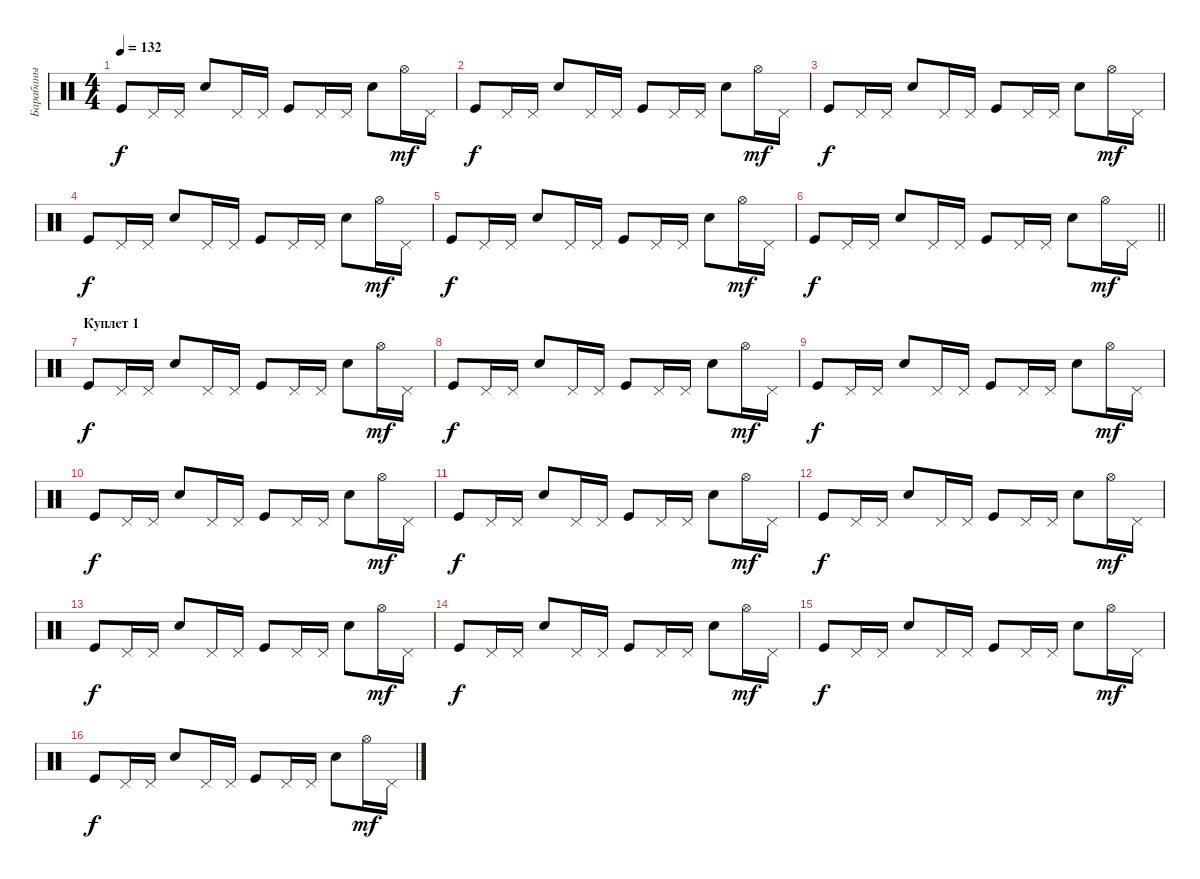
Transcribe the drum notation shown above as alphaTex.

\track ("Барабаны" "Барабаны") {instrument percussion}
\staff {score}
\articulation defaults
\ts (4 4)
\tempo 132
\clef neutral
\ks c "Kick (hit)".8{dy f} "Pedal Hi-Hat (hit)".16 "Pedal Hi-Hat (hit)".16 "Snare (hit) 2".8 "Pedal Hi-Hat (hit)".16 "Pedal Hi-Hat (hit)".16 "Kick (hit)".8 "Pedal Hi-Hat (hit)".16 "Pedal Hi-Hat (hit)".16 "Snare (hit) 2".8 "Hi-Hat (open)".16{dy mf} "Pedal Hi-Hat (hit)".16
|
"Kick (hit)".8{dy f} "Pedal Hi-Hat (hit)".16 "Pedal Hi-Hat (hit)".16 "Snare (hit) 2".8 "Pedal Hi-Hat (hit)".16 "Pedal Hi-Hat (hit)".16 "Kick (hit)".8 "Pedal Hi-Hat (hit)".16 "Pedal Hi-Hat (hit)".16 "Snare (hit) 2".8 "Hi-Hat (open)".16{dy mf} "Pedal Hi-Hat (hit)".16 |
"Kick (hit)".8{dy f} "Pedal Hi-Hat (hit)".16 "Pedal Hi-Hat (hit)".16 "Snare (hit) 2".8 "Pedal Hi-Hat (hit)".16 "Pedal Hi-Hat (hit)".16 "Kick (hit)".8 "Pedal Hi-Hat (hit)".16 "Pedal Hi-Hat (hit)".16 "Snare (hit) 2".8 "Hi-Hat (open)".16{dy mf} "Pedal Hi-Hat (hit)".16 |
"Kick (hit)".8{dy f} "Pedal Hi-Hat (hit)".16 "Pedal Hi-Hat (hit)".16 "Snare (hit) 2".8 "Pedal Hi-Hat (hit)".16 "Pedal Hi-Hat (hit)".16 "Kick (hit)".8 "Pedal Hi-Hat (hit)".16 "Pedal Hi-Hat (hit)".16 "Snare (hit) 2".8 "Hi-Hat (open)".16{dy mf} "Pedal Hi-Hat (hit)".16 |
"Kick (hit)".8{dy f} "Pedal Hi-Hat (hit)".16 "Pedal Hi-Hat (hit)".16 "Snare (hit) 2".8 "Pedal Hi-Hat (hit)".16 "Pedal Hi-Hat (hit)".16 "Kick (hit)".8 "Pedal Hi-Hat (hit)".16 "Pedal Hi-Hat (hit)".16 "Snare (hit) 2".8 "Hi-Hat (open)".16{dy mf} "Pedal Hi-Hat (hit)".16 |
\barLineRight lightlight "Kick (hit)".8{dy f} "Pedal Hi-Hat (hit)".16 "Pedal Hi-Hat (hit)".16 "Snare (hit) 2".8 "Pedal Hi-Hat (hit)".16 "Pedal Hi-Hat (hit)".16 "Kick (hit)".8 "Pedal Hi-Hat (hit)".16 "Pedal Hi-Hat (hit)".16 "Snare (hit) 2".8 "Hi-Hat (open)".16{dy mf} "Pedal Hi-Hat (hit)".16
|
\section ("" "Куплет 1")
"Kick (hit)".8{dy f} "Pedal Hi-Hat (hit)".16 "Pedal Hi-Hat (hit)".16 "Snare (hit) 2".8 "Pedal Hi-Hat (hit)".16 "Pedal Hi-Hat (hit)".16 "Kick (hit)".8 "Pedal Hi-Hat (hit)".16 "Pedal Hi-Hat (hit)".16 "Snare (hit) 2".8 "Hi-Hat (open)".16{dy mf} "Pedal Hi-Hat (hit)".16 |
"Kick (hit)".8{dy f} "Pedal Hi-Hat (hit)".16 "Pedal Hi-Hat (hit)".16 "Snare (hit) 2".8 "Pedal Hi-Hat (hit)".16 "Pedal Hi-Hat (hit)".16 "Kick (hit)".8 "Pedal Hi-Hat (hit)".16 "Pedal Hi-Hat (hit)".16 "Snare (hit) 2".8 "Hi-Hat (open)".16{dy mf} "Pedal Hi-Hat (hit)".16 |
"Kick (hit)".8{dy f} "Pedal Hi-Hat (hit)".16 "Pedal Hi-Hat (hit)".16 "Snare (hit) 2".8 "Pedal Hi-Hat (hit)".16 "Pedal Hi-Hat (hit)".16 "Kick (hit)".8 "Pedal Hi-Hat (hit)".16 "Pedal Hi-Hat (hit)".16 "Snare (hit) 2".8 "Hi-Hat (open)".16{dy mf} "Pedal Hi-Hat (hit)".16 |
"Kick (hit)".8{dy f} "Pedal Hi-Hat (hit)".16 "Pedal Hi-Hat (hit)".16 "Snare (hit) 2".8 "Pedal Hi-Hat (hit)".16 "Pedal Hi-Hat (hit)".16 "Kick (hit)".8 "Pedal Hi-Hat (hit)".16 "Pedal Hi-Hat (hit)".16 "Snare (hit) 2".8 "Hi-Hat (open)".16{dy mf} "Pedal Hi-Hat (hit)".16 |
"Kick (hit)".8{dy f} "Pedal Hi-Hat (hit)".16 "Pedal Hi-Hat (hit)".16 "Snare (hit) 2".8 "Pedal Hi-Hat (hit)".16 "Pedal Hi-Hat (hit)".16 "Kick (hit)".8 "Pedal Hi-Hat (hit)".16 "Pedal Hi-Hat (hit)".16 "Snare (hit) 2".8 "Hi-Hat (open)".16{dy mf} "Pedal Hi-Hat (hit)".16 |
"Kick (hit)".8{dy f} "Pedal Hi-Hat (hit)".16 "Pedal Hi-Hat (hit)".16 "Snare (hit) 2".8 "Pedal Hi-Hat (hit)".16 "Pedal Hi-Hat (hit)".16 "Kick (hit)".8 "Pedal Hi-Hat (hit)".16 "Pedal Hi-Hat (hit)".16 "Snare (hit) 2".8 "Hi-Hat (open)".16{dy mf} "Pedal Hi-Hat (hit)".16 |
"Kick (hit)".8{dy f} "Pedal Hi-Hat (hit)".16 "Pedal Hi-Hat (hit)".16 "Snare (hit) 2".8 "Pedal Hi-Hat (hit)".16 "Pedal Hi-Hat (hit)".16 "Kick (hit)".8 "Pedal Hi-Hat (hit)".16 "Pedal Hi-Hat (hit)".16 "Snare (hit) 2".8 "Hi-Hat (open)".16{dy mf} "Pedal Hi-Hat (hit)".16 |
"Kick (hit)".8{dy f} "Pedal Hi-Hat (hit)".16 "Pedal Hi-Hat (hit)".16 "Snare (hit) 2".8 "Pedal Hi-Hat (hit)".16 "Pedal Hi-Hat (hit)".16 "Kick (hit)".8 "Pedal Hi-Hat (hit)".16 "Pedal Hi-Hat (hit)".16 "Snare (hit) 2".8 "Hi-Hat (open)".16{dy mf} "Pedal Hi-Hat (hit)".16 |
"Kick (hit)".8{dy f} "Pedal Hi-Hat (hit)".16 "Pedal Hi-Hat (hit)".16 "Snare (hit) 2".8 "Pedal Hi-Hat (hit)".16 "Pedal Hi-Hat (hit)".16 "Kick (hit)".8 "Pedal Hi-Hat (hit)".16 "Pedal Hi-Hat (hit)".16 "Snare (hit) 2".8 "Hi-Hat (open)".16{dy mf} "Pedal Hi-Hat (hit)".16 |
"Kick (hit)".8{dy f} "Pedal Hi-Hat (hit)".16 "Pedal Hi-Hat (hit)".16 "Snare (hit) 2".8 "Pedal Hi-Hat (hit)".16 "Pedal Hi-Hat (hit)".16 "Kick (hit)".8 "Pedal Hi-Hat (hit)".16 "Pedal Hi-Hat (hit)".16 "Snare (hit) 2".8 "Hi-Hat (open)".16{dy mf} "Pedal Hi-Hat (hit)".16
